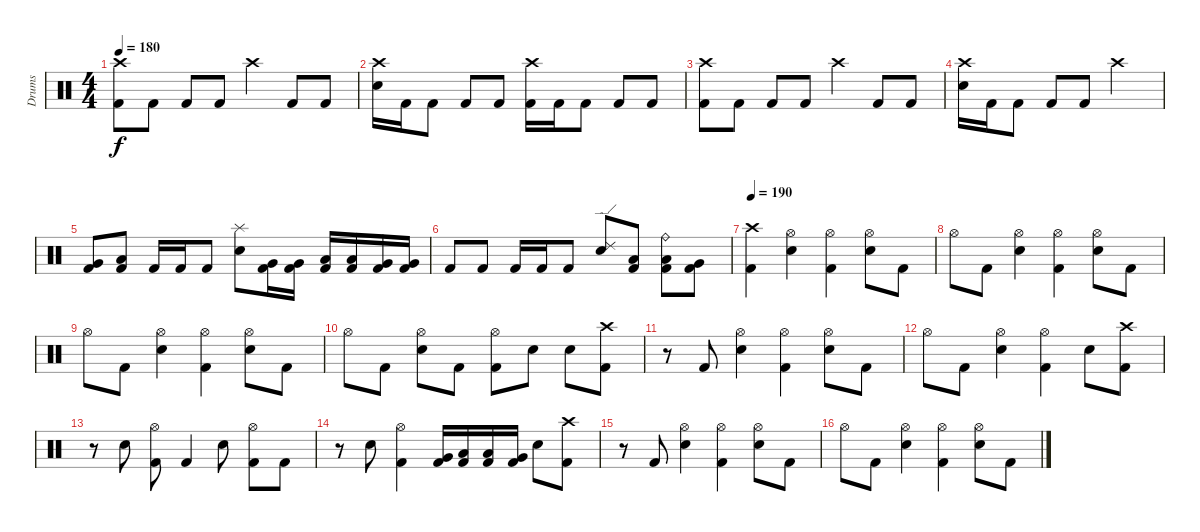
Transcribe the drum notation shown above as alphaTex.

\track ("Drums" "Drums") {instrument percussion}
\staff {score}
\articulation defaults
\ts (4 4)
\tempo 180
\clef neutral
\ks c
("Crash high (hit)" "Kick (hit) 2").8{dy f} "Kick (hit) 2".8 "Kick (hit) 2".8 "Kick (hit) 2".8 "Crash high (hit)".4 "Kick (hit) 2".8 "Kick (hit) 2".8 |
("Crash high (hit)" "Electric Snare (hit)").16 "Kick (hit) 2".16 "Kick (hit) 2".8 "Kick (hit) 2".8 "Kick (hit) 2".8 ("Crash high (hit)" "Kick (hit) 2").16 "Kick (hit) 2".16 "Kick (hit) 2".8 "Kick (hit) 2".8 "Kick (hit) 2".8 |
("Crash high (hit)" "Kick (hit) 2").8 "Kick (hit) 2".8 "Kick (hit) 2".8 "Kick (hit) 2".8 "Crash high (hit)".4 "Kick (hit) 2".8 "Kick (hit) 2".8 |
("Crash high (hit)" "Electric Snare (hit)").16 "Kick (hit) 2".16 "Kick (hit) 2".8 "Kick (hit) 2".8 "Kick (hit) 2".8 "Crash high (hit)".2 |
("Very Low Tom (hit)" "Kick (hit) 2").8 ("Low Tom (hit)" "Kick (hit) 2").8 "Kick (hit) 2".16 "Kick (hit) 2".16 "Kick (hit) 2".8 ("Splash (hit)" "Electric Snare (hit)").8 ("Very Low Tom (hit)" "Kick (hit) 2").16 ("Very Low Tom (hit)" "Kick (hit) 2").16 ("Low Floor Tom (hit)" "Kick (hit) 2").16 ("Low Floor Tom (hit)" "Kick (hit) 2").16 ("Very Low Tom (hit)" "Kick (hit) 2").16 ("Very Low Tom (hit)" "Kick (hit) 2").16 |
"Kick (hit) 2".8 "Kick (hit) 2".8 "Kick (hit) 2".16 "Kick (hit) 2".16 "Kick (hit) 2".8 ("Ride (edge) 2" "Electric Snare (hit)").8 ("Low Tom (hit)" "Kick (hit) 2").8 ("Ride (bell)" "Low Floor Tom (hit)" "Kick (hit) 2").8 ("Very Low Tom (hit)" "Kick (hit) 2").8 |
\tempo 190
("Crash high (hit)" "Kick (hit) 2").4 ("Hi-Hat (open)" "Electric Snare (hit)").4 ("Hi-Hat (open)" "Kick (hit) 2").4 ("Hi-Hat (open)" "Electric Snare (hit)").8 "Kick (hit) 2".8 |
"Hi-Hat (open)".8 "Kick (hit) 2".8 ("Hi-Hat (open)" "Electric Snare (hit)").4 ("Hi-Hat (open)" "Kick (hit) 2").4 ("Hi-Hat (open)" "Electric Snare (hit)").8 "Kick (hit) 2".8 |
"Hi-Hat (open)".8 "Kick (hit) 2".8 ("Hi-Hat (open)" "Electric Snare (hit)").4 ("Hi-Hat (open)" "Kick (hit) 2").4 ("Hi-Hat (open)" "Electric Snare (hit)").8 "Kick (hit) 2".8 |
"Hi-Hat (open)".8 "Kick (hit) 2".8 ("Hi-Hat (open)" "Electric Snare (hit)").8 "Kick (hit) 2".8 ("Hi-Hat (open)" "Kick (hit) 2").8 "Electric Snare (hit)".8 "Electric Snare (hit)".8 ("Crash high (hit)" "Kick (hit) 2").8 |
r.8 "Kick (hit) 2".8 ("Hi-Hat (open)" "Electric Snare (hit)").4 ("Hi-Hat (open)" "Kick (hit) 2").4 ("Hi-Hat (open)" "Electric Snare (hit)").8 "Kick (hit) 2".8 |
"Hi-Hat (open)".8 "Kick (hit) 2".8 ("Hi-Hat (open)" "Electric Snare (hit)").4 ("Hi-Hat (open)" "Kick (hit) 2").4 "Electric Snare (hit)".8 ("Crash high (hit)" "Kick (hit) 2").8 |
r.8 "Electric Snare (hit)".8 ("Hi-Hat (open)" "Kick (hit) 2").8 "Kick (hit) 2".4 "Electric Snare (hit)".8 ("Hi-Hat (open)" "Kick (hit) 2").8 "Kick (hit) 2".8 |
r.8 "Electric Snare (hit)".8 ("Hi-Hat (open)" "Kick (hit) 2").4 ("Very Low Tom (hit)" "Kick (hit) 2").16 ("Low Floor Tom (hit)" "Kick (hit) 2").16 ("Low Floor Tom (hit)" "Kick (hit) 2").16 ("Very Low Tom (hit)" "Kick (hit) 2").16 "Electric Snare (hit)".8 ("Crash high (hit)" "Kick (hit) 2").8 |
r.8 "Kick (hit) 2".8 ("Hi-Hat (open)" "Electric Snare (hit)").4 ("Hi-Hat (open)" "Kick (hit) 2").4 ("Hi-Hat (open)" "Electric Snare (hit)").8 "Kick (hit) 2".8 |
"Hi-Hat (open)".8 "Kick (hit) 2".8 ("Hi-Hat (open)" "Electric Snare (hit)").4 ("Hi-Hat (open)" "Kick (hit) 2").4 ("Hi-Hat (open)" "Electric Snare (hit)").8 "Kick (hit) 2".8
